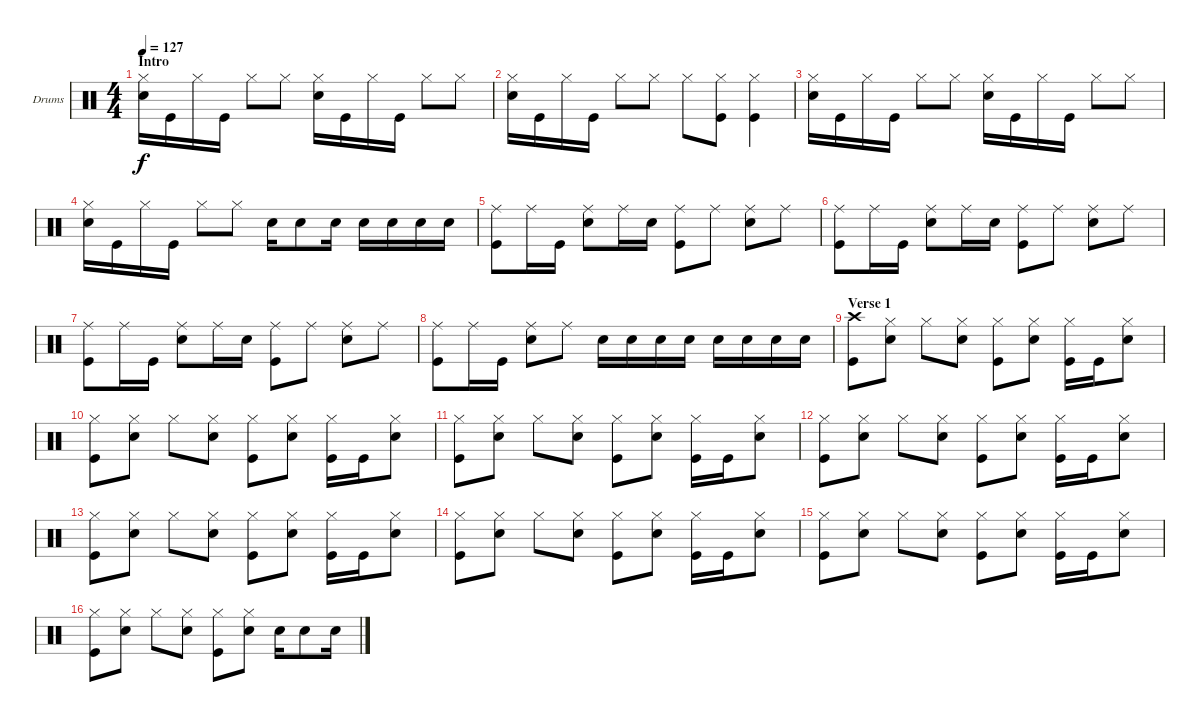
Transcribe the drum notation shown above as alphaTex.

\bracketExtendMode nobrackets
\firstSystemTrackNameOrientation horizontal
\otherSystemsTrackNameOrientation horizontal
\track ("Matt Cameron" "Drums") {instrument percussion}
\staff {score}
\articulation defaults
\ts (4 4)
\section ("" "Intro")
\tempo 127
\clef neutral
\scale
0.474178
\ks c
("Hi-Hat (closed)" "Snare (hit) 2").16{dy f} "Kick (hit)".16 "Hi-Hat (closed)".16 "Kick (hit)".16 "Hi-Hat (closed)".8 "Hi-Hat (closed)".8 ("Hi-Hat (closed)" "Snare (hit) 2").16 "Kick (hit)".16 "Hi-Hat (closed)".16 "Kick (hit)".16 "Hi-Hat (closed)".8 "Hi-Hat (closed)".8 |
\scale
0.262911 ("Hi-Hat (closed)" "Snare (hit) 2").16 "Kick (hit)".16 "Hi-Hat (closed)".16 "Kick (hit)".16 "Hi-Hat (closed)".8 "Hi-Hat (closed)".8 "Hi-Hat (closed)".8 ("Hi-Hat (closed)" "Kick (hit)").8 ("Hi-Hat (closed)" "Kick (hit)").4 |
\scale
0.262911 ("Hi-Hat (closed)" "Snare (hit) 2").16 "Kick (hit)".16 "Hi-Hat (closed)".16 "Kick (hit)".16 "Hi-Hat (closed)".8 "Hi-Hat (closed)".8 ("Hi-Hat (closed)" "Snare (hit) 2").16 "Kick (hit)".16 "Hi-Hat (closed)".16 "Kick (hit)".16 "Hi-Hat (closed)".8 "Hi-Hat (closed)".8 |
\scale
0.333333 ("Hi-Hat (closed)" "Snare (hit) 2").16 "Kick (hit)".16 "Hi-Hat (closed)".16 "Kick (hit)".16 "Hi-Hat (closed)".8 "Hi-Hat (closed)".8 "Snare (hit) 2".16 "Snare (hit) 2".8 "Snare (hit) 2".16 "Snare (hit) 2".16 "Snare (hit) 2".16 "Snare (hit) 2".16 "Snare (hit) 2".16 |
\scale
0.333333 ("Ride (middle)" "Kick (hit)").8 "Ride (middle)".16 "Kick (hit)".16 ("Ride (middle)" "Snare (hit) 2").8 "Ride (middle)".16 "Snare (hit) 2".16 ("Ride (middle)" "Kick (hit)").8 "Ride (middle)".8 ("Ride (middle)" "Snare (hit) 2").8 "Ride (middle)".8 |
\scale
0.333333 ("Ride (middle)" "Kick (hit)").8 "Ride (middle)".16 "Kick (hit)".16 ("Ride (middle)" "Snare (hit) 2").8 "Ride (middle)".16 "Snare (hit) 2".16 ("Ride (middle)" "Kick (hit)").8 "Ride (middle)".8 ("Ride (middle)" "Snare (hit) 2").8 "Ride (middle)".8 |
\scale
0.333333 ("Ride (middle)" "Kick (hit)").8 "Ride (middle)".16 "Kick (hit)".16 ("Ride (middle)" "Snare (hit) 2").8 "Ride (middle)".16 "Snare (hit) 2".16 ("Ride (middle)" "Kick (hit)").8 "Ride (middle)".8 ("Ride (middle)" "Snare (hit) 2").8 "Ride (middle)".8 |
\scale
0.333333 ("Ride (middle)" "Kick (hit)").8 "Ride (middle)".16 "Kick (hit)".16 ("Ride (middle)" "Snare (hit) 2").8 "Ride (middle)".8 "Snare (hit) 2".16 "Snare (hit) 2".16 "Snare (hit) 2".16 "Snare (hit) 2".16 "Snare (hit) 2".16 "Snare (hit) 2".16 "Snare (hit) 2".16 "Snare (hit) 2".16 |
\section ("" "Verse 1")
\scale
0.333333 ("Kick (hit)" "Crash high (hit)").8 ("Snare (hit) 2" "Hi-Hat (closed)").8 "Hi-Hat (closed)".8 ("Snare (hit) 2" "Hi-Hat (closed)").8 ("Kick (hit)" "Hi-Hat (closed)").8 ("Snare (hit) 2" "Hi-Hat (closed)").8 ("Kick (hit)" "Hi-Hat (closed)").16 "Kick (hit)".16 ("Snare (hit) 2" "Hi-Hat (closed)").8 |
\scale
0.333333 ("Kick (hit)" "Hi-Hat (closed)").8 ("Snare (hit) 2" "Hi-Hat (closed)").8 "Hi-Hat (closed)".8 ("Snare (hit) 2" "Hi-Hat (closed)").8 ("Kick (hit)" "Hi-Hat (closed)").8 ("Snare (hit) 2" "Hi-Hat (closed)").8 ("Kick (hit)" "Hi-Hat (closed)").16 "Kick (hit)".16 ("Snare (hit) 2" "Hi-Hat (closed)").8 |
\scale
0.333333 ("Kick (hit)" "Hi-Hat (closed)").8 ("Snare (hit) 2" "Hi-Hat (closed)").8 "Hi-Hat (closed)".8 ("Snare (hit) 2" "Hi-Hat (closed)").8 ("Kick (hit)" "Hi-Hat (closed)").8 ("Snare (hit) 2" "Hi-Hat (closed)").8 ("Kick (hit)" "Hi-Hat (closed)").16 "Kick (hit)".16 ("Snare (hit) 2" "Hi-Hat (closed)").8 |
\scale
0.333333 ("Kick (hit)" "Hi-Hat (closed)").8 ("Snare (hit) 2" "Hi-Hat (closed)").8 "Hi-Hat (closed)".8 ("Snare (hit) 2" "Hi-Hat (closed)").8 ("Kick (hit)" "Hi-Hat (closed)").8 ("Snare (hit) 2" "Hi-Hat (closed)").8 ("Kick (hit)" "Hi-Hat (closed)").16 "Kick (hit)".16 ("Snare (hit) 2" "Hi-Hat (closed)").8 |
\scale
0.333333 ("Kick (hit)" "Hi-Hat (closed)").8 ("Snare (hit) 2" "Hi-Hat (closed)").8 "Hi-Hat (closed)".8 ("Snare (hit) 2" "Hi-Hat (closed)").8 ("Kick (hit)" "Hi-Hat (closed)").8 ("Snare (hit) 2" "Hi-Hat (closed)").8 ("Kick (hit)" "Hi-Hat (closed)").16 "Kick (hit)".16 ("Snare (hit) 2" "Hi-Hat (closed)").8 |
\scale
0.333333 ("Kick (hit)" "Hi-Hat (closed)").8 ("Snare (hit) 2" "Hi-Hat (closed)").8 "Hi-Hat (closed)".8 ("Snare (hit) 2" "Hi-Hat (closed)").8 ("Kick (hit)" "Hi-Hat (closed)").8 ("Snare (hit) 2" "Hi-Hat (closed)").8 ("Kick (hit)" "Hi-Hat (closed)").16 "Kick (hit)".16 ("Snare (hit) 2" "Hi-Hat (closed)").8 |
\scale
0.333333 ("Kick (hit)" "Hi-Hat (closed)").8 ("Snare (hit) 2" "Hi-Hat (closed)").8 "Hi-Hat (closed)".8 ("Snare (hit) 2" "Hi-Hat (closed)").8 ("Kick (hit)" "Hi-Hat (closed)").8 ("Snare (hit) 2" "Hi-Hat (closed)").8 ("Kick (hit)" "Hi-Hat (closed)").16 "Kick (hit)".16 ("Snare (hit) 2" "Hi-Hat (closed)").8 |
\scale
0.333333 ("Kick (hit)" "Hi-Hat (closed)").8 ("Snare (hit) 2" "Hi-Hat (closed)").8 "Hi-Hat (closed)".8 ("Snare (hit) 2" "Hi-Hat (closed)").8 ("Kick (hit)" "Hi-Hat (closed)").8 ("Snare (hit) 2" "Hi-Hat (closed)").8 "Snare (hit) 2".16 "Snare (hit) 2".8 "Snare (hit) 2".16
